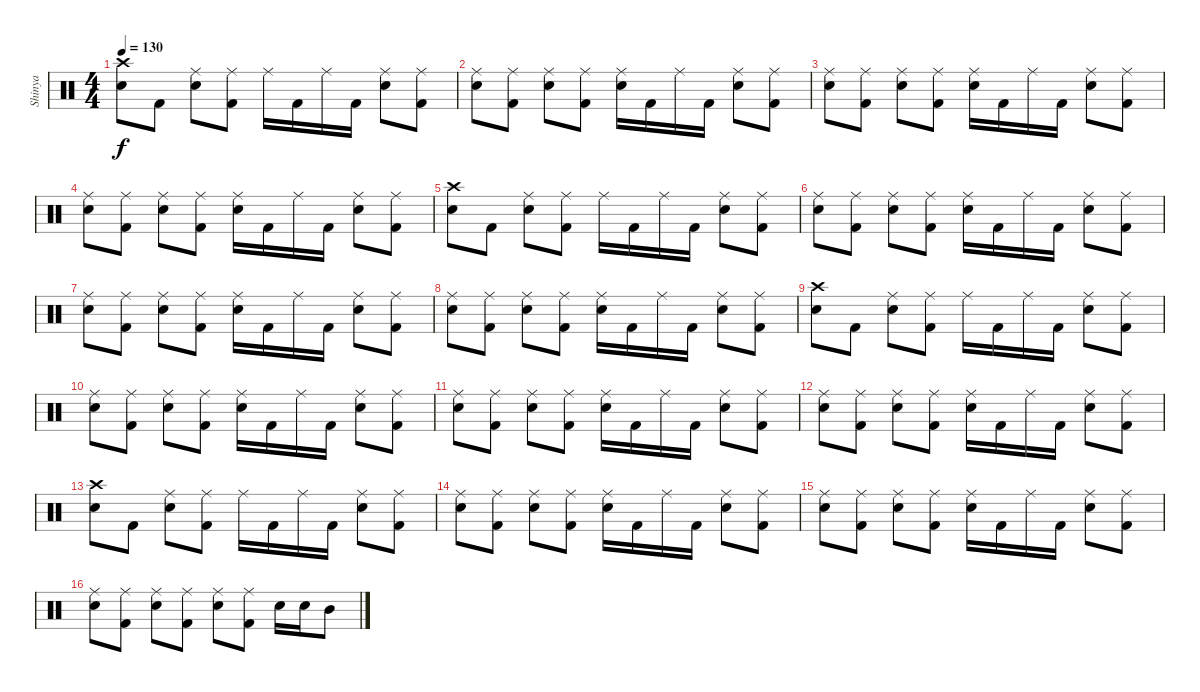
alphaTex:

\track ("Shinya" "Shinya") {instrument percussion}
\staff {score}
\articulation defaults
\ts (4 4)
\tempo 130
\clef neutral
\ks c
("Crash high (hit)" "Electric Snare (hit)").8{dy f} "Kick (hit) 2".8 ("Ride (middle)" "Electric Snare (hit)").8 ("Ride (middle)" "Kick (hit) 2").8 "Ride (middle)".16 "Kick (hit) 2".16 "Ride (middle)".16 "Kick (hit) 2".16 ("Ride (middle)" "Electric Snare (hit)").8 ("Ride (middle)" "Kick (hit) 2").8 |
("Ride (middle)" "Electric Snare (hit)").8 ("Ride (middle)" "Kick (hit) 2").8 ("Ride (middle)" "Electric Snare (hit)").8 ("Ride (middle)" "Kick (hit) 2").8 ("Ride (middle)" "Electric Snare (hit)").16 "Kick (hit) 2".16 "Ride (middle)".16 "Kick (hit) 2".16 ("Ride (middle)" "Electric Snare (hit)").8 ("Ride (middle)" "Kick (hit) 2").8 |
("Ride (middle)" "Electric Snare (hit)").8 ("Ride (middle)" "Kick (hit) 2").8 ("Ride (middle)" "Electric Snare (hit)").8 ("Ride (middle)" "Kick (hit) 2").8 ("Ride (middle)" "Electric Snare (hit)").16 "Kick (hit) 2".16 "Ride (middle)".16 "Kick (hit) 2".16 ("Ride (middle)" "Electric Snare (hit)").8 ("Ride (middle)" "Kick (hit) 2").8 |
("Ride (middle)" "Electric Snare (hit)").8 ("Ride (middle)" "Kick (hit) 2").8 ("Ride (middle)" "Electric Snare (hit)").8 ("Ride (middle)" "Kick (hit) 2").8 ("Ride (middle)" "Electric Snare (hit)").16 "Kick (hit) 2".16 "Ride (middle)".16 "Kick (hit) 2".16 ("Ride (middle)" "Electric Snare (hit)").8 ("Ride (middle)" "Kick (hit) 2").8 |
("Crash high (hit)" "Electric Snare (hit)").8 "Kick (hit) 2".8 ("Ride (middle)" "Electric Snare (hit)").8 ("Ride (middle)" "Kick (hit) 2").8 "Ride (middle)".16 "Kick (hit) 2".16 "Ride (middle)".16 "Kick (hit) 2".16 ("Ride (middle)" "Electric Snare (hit)").8 ("Ride (middle)" "Kick (hit) 2").8 |
("Ride (middle)" "Electric Snare (hit)").8 ("Ride (middle)" "Kick (hit) 2").8 ("Ride (middle)" "Electric Snare (hit)").8 ("Ride (middle)" "Kick (hit) 2").8 ("Ride (middle)" "Electric Snare (hit)").16 "Kick (hit) 2".16 "Ride (middle)".16 "Kick (hit) 2".16 ("Ride (middle)" "Electric Snare (hit)").8 ("Ride (middle)" "Kick (hit) 2").8 |
("Ride (middle)" "Electric Snare (hit)").8 ("Ride (middle)" "Kick (hit) 2").8 ("Ride (middle)" "Electric Snare (hit)").8 ("Ride (middle)" "Kick (hit) 2").8 ("Ride (middle)" "Electric Snare (hit)").16 "Kick (hit) 2".16 "Ride (middle)".16 "Kick (hit) 2".16 ("Ride (middle)" "Electric Snare (hit)").8 ("Ride (middle)" "Kick (hit) 2").8 |
("Ride (middle)" "Electric Snare (hit)").8 ("Ride (middle)" "Kick (hit) 2").8 ("Ride (middle)" "Electric Snare (hit)").8 ("Ride (middle)" "Kick (hit) 2").8 ("Ride (middle)" "Electric Snare (hit)").16 "Kick (hit) 2".16 "Ride (middle)".16 "Kick (hit) 2".16 ("Ride (middle)" "Electric Snare (hit)").8 ("Ride (middle)" "Kick (hit) 2").8 |
("Crash high (hit)" "Electric Snare (hit)").8 "Kick (hit) 2".8 ("Ride (middle)" "Electric Snare (hit)").8 ("Ride (middle)" "Kick (hit) 2").8 "Ride (middle)".16 "Kick (hit) 2".16 "Ride (middle)".16 "Kick (hit) 2".16 ("Ride (middle)" "Electric Snare (hit)").8 ("Ride (middle)" "Kick (hit) 2").8 |
("Ride (middle)" "Electric Snare (hit)").8 ("Ride (middle)" "Kick (hit) 2").8 ("Ride (middle)" "Electric Snare (hit)").8 ("Ride (middle)" "Kick (hit) 2").8 ("Ride (middle)" "Electric Snare (hit)").16 "Kick (hit) 2".16 "Ride (middle)".16 "Kick (hit) 2".16 ("Ride (middle)" "Electric Snare (hit)").8 ("Ride (middle)" "Kick (hit) 2").8 |
("Ride (middle)" "Electric Snare (hit)").8 ("Ride (middle)" "Kick (hit) 2").8 ("Ride (middle)" "Electric Snare (hit)").8 ("Ride (middle)" "Kick (hit) 2").8 ("Ride (middle)" "Electric Snare (hit)").16 "Kick (hit) 2".16 "Ride (middle)".16 "Kick (hit) 2".16 ("Ride (middle)" "Electric Snare (hit)").8 ("Ride (middle)" "Kick (hit) 2").8 |
("Ride (middle)" "Electric Snare (hit)").8 ("Ride (middle)" "Kick (hit) 2").8 ("Ride (middle)" "Electric Snare (hit)").8 ("Ride (middle)" "Kick (hit) 2").8 ("Ride (middle)" "Electric Snare (hit)").16 "Kick (hit) 2".16 "Ride (middle)".16 "Kick (hit) 2".16 ("Ride (middle)" "Electric Snare (hit)").8 ("Ride (middle)" "Kick (hit) 2").8 |
("Crash high (hit)" "Electric Snare (hit)").8 "Kick (hit) 2".8 ("Ride (middle)" "Electric Snare (hit)").8 ("Ride (middle)" "Kick (hit) 2").8 "Ride (middle)".16 "Kick (hit) 2".16 "Ride (middle)".16 "Kick (hit) 2".16 ("Ride (middle)" "Electric Snare (hit)").8 ("Ride (middle)" "Kick (hit) 2").8 |
("Ride (middle)" "Electric Snare (hit)").8 ("Ride (middle)" "Kick (hit) 2").8 ("Ride (middle)" "Electric Snare (hit)").8 ("Ride (middle)" "Kick (hit) 2").8 ("Ride (middle)" "Electric Snare (hit)").16 "Kick (hit) 2".16 "Ride (middle)".16 "Kick (hit) 2".16 ("Ride (middle)" "Electric Snare (hit)").8 ("Ride (middle)" "Kick (hit) 2").8 |
("Ride (middle)" "Electric Snare (hit)").8 ("Ride (middle)" "Kick (hit) 2").8 ("Ride (middle)" "Electric Snare (hit)").8 ("Ride (middle)" "Kick (hit) 2").8 ("Ride (middle)" "Electric Snare (hit)").16 "Kick (hit) 2".16 "Ride (middle)".16 "Kick (hit) 2".16 ("Ride (middle)" "Electric Snare (hit)").8 ("Ride (middle)" "Kick (hit) 2").8 |
("Ride (middle)" "Electric Snare (hit)").8 ("Ride (middle)" "Kick (hit) 2").8 ("Ride (middle)" "Electric Snare (hit)").8 ("Ride (middle)" "Kick (hit) 2").8 ("Ride (middle)" "Electric Snare (hit)").8 ("Ride (middle)" "Kick (hit) 2").8 "Electric Snare (hit)".16 "Electric Snare (hit)".16 "Mid Tom (hit)".8
